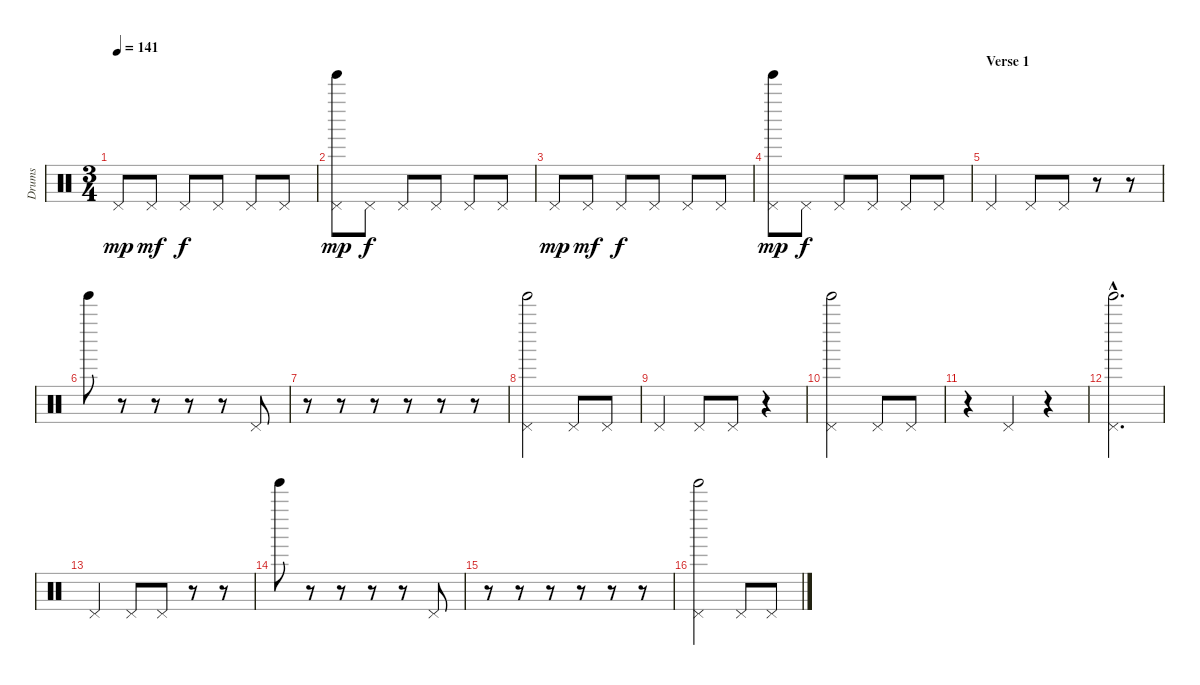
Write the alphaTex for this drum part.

\track ("Drums" "Drums") {instrument percussion}
\staff {score}
\articulation defaults
\ts (3 4)
\tempo 141
\clef neutral
\ks c "Pedal Hi-Hat (hit)".8{dy mp} "Pedal Hi-Hat (hit)".8{dy mf} "Pedal Hi-Hat (hit)".8{dy f} "Pedal Hi-Hat (hit)".8 "Pedal Hi-Hat (hit)".8 "Pedal Hi-Hat (hit)".8
|
("Pedal Hi-Hat (hit)" "Tinkle Bell (hit)").8{dy mp} "Pedal Hi-Hat (hit)".8{dy f} "Pedal Hi-Hat (hit)".8 "Pedal Hi-Hat (hit)".8 "Pedal Hi-Hat (hit)".8 "Pedal Hi-Hat (hit)".8 |
"Pedal Hi-Hat (hit)".8{dy mp} "Pedal Hi-Hat (hit)".8{dy mf} "Pedal Hi-Hat (hit)".8{dy f} "Pedal Hi-Hat (hit)".8 "Pedal Hi-Hat (hit)".8 "Pedal Hi-Hat (hit)".8 |
("Pedal Hi-Hat (hit)" "Tinkle Bell (hit)").8{dy mp} "Pedal Hi-Hat (hit)".8{dy f} "Pedal Hi-Hat (hit)".8 "Pedal Hi-Hat (hit)".8 "Pedal Hi-Hat (hit)".8 "Pedal Hi-Hat (hit)".8 |
\section ("" "Verse 1")
"Pedal Hi-Hat (hit)".4 "Pedal Hi-Hat (hit)".8 "Pedal Hi-Hat (hit)".8 r.8 r.8 |
"Tinkle Bell (hit)".8 r.8 r.8 r.8 r.8 "Pedal Hi-Hat (hit)".8 |
r.8 r.8 r.8 r.8 r.8 r.8 |
("Pedal Hi-Hat (hit)" "Tinkle Bell (hit)").2 "Pedal Hi-Hat (hit)".8 "Pedal Hi-Hat (hit)".8 |
"Pedal Hi-Hat (hit)".4 "Pedal Hi-Hat (hit)".8 "Pedal Hi-Hat (hit)".8 r.4 |
("Pedal Hi-Hat (hit)" "Tinkle Bell (hit)").2 "Pedal Hi-Hat (hit)".8 "Pedal Hi-Hat (hit)".8 |
r.4 "Pedal Hi-Hat (hit)".4 r.4 |
("Pedal Hi-Hat (hit)"{hac} "Tinkle Bell (hit)"{hac}).2{d} |
"Pedal Hi-Hat (hit)".4 "Pedal Hi-Hat (hit)".8 "Pedal Hi-Hat (hit)".8 r.8 r.8 |
"Tinkle Bell (hit)".8 r.8 r.8 r.8 r.8 "Pedal Hi-Hat (hit)".8 |
r.8 r.8 r.8 r.8 r.8 r.8 |
("Pedal Hi-Hat (hit)" "Tinkle Bell (hit)").2 "Pedal Hi-Hat (hit)".8 "Pedal Hi-Hat (hit)".8
